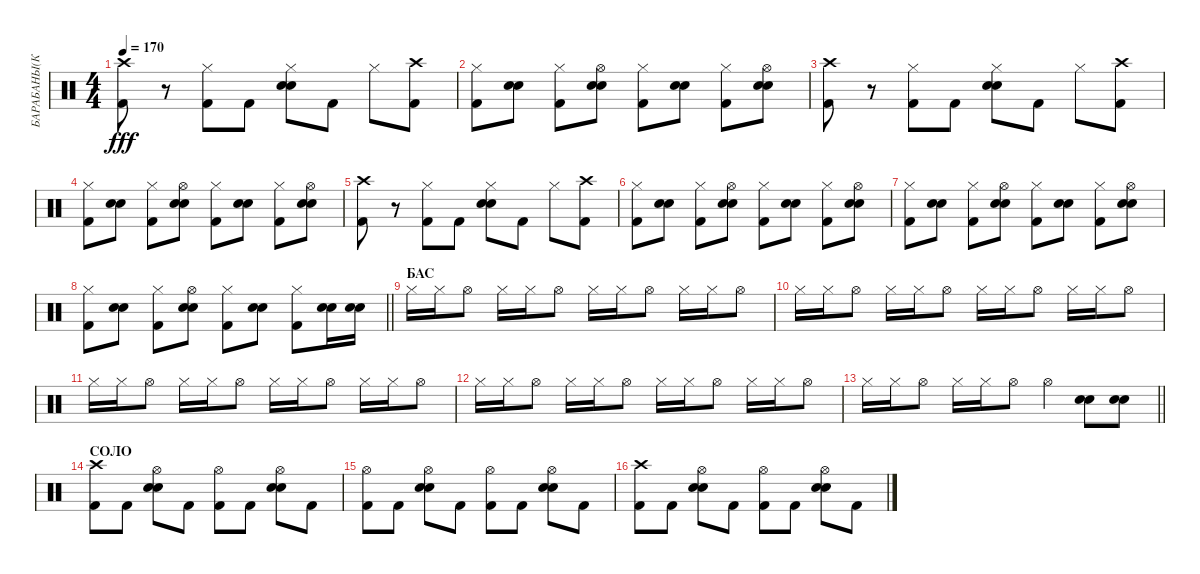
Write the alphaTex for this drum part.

\track ("БАРАБАНЫ(КАРДАН)" "БАРАБАНЫ(К") {instrument percussion}
\staff {score}
\articulation defaults
\ts (4 4)
\tempo 170
\clef neutral
\ks c
("Kick (hit) 2" "Crash high (hit)").8{dy fff} r.8 ("Kick (hit) 2" "Hi-Hat (closed)").8 "Kick (hit) 2".8 ("Snare (hit) 2" "Electric Snare (hit)" "Hi-Hat (closed)").8 "Kick (hit) 2".8 "Hi-Hat (closed)".8 ("Kick (hit) 2" "Crash high (hit)").8 |
("Kick (hit) 2" "Hi-Hat (closed)").8 ("Snare (hit) 2" "Electric Snare (hit)").8 ("Kick (hit) 2" "Hi-Hat (closed)").8 ("Electric Snare (hit)" "Snare (hit) 2" "Hi-Hat (open)").8 ("Kick (hit) 2" "Hi-Hat (closed)").8 ("Snare (hit) 2" "Electric Snare (hit)").8 ("Kick (hit) 2" "Hi-Hat (closed)").8 ("Electric Snare (hit)" "Snare (hit) 2" "Hi-Hat (open)").8 |
("Kick (hit) 2" "Crash high (hit)").8 r.8 ("Kick (hit) 2" "Hi-Hat (closed)").8 "Kick (hit) 2".8 ("Snare (hit) 2" "Electric Snare (hit)" "Hi-Hat (closed)").8 "Kick (hit) 2".8 "Hi-Hat (closed)".8 ("Kick (hit) 2" "Crash high (hit)").8 |
("Kick (hit) 2" "Hi-Hat (closed)").8 ("Snare (hit) 2" "Electric Snare (hit)").8 ("Kick (hit) 2" "Hi-Hat (closed)").8 ("Electric Snare (hit)" "Snare (hit) 2" "Hi-Hat (open)").8 ("Kick (hit) 2" "Hi-Hat (closed)").8 ("Snare (hit) 2" "Electric Snare (hit)").8 ("Kick (hit) 2" "Hi-Hat (closed)").8 ("Electric Snare (hit)" "Snare (hit) 2" "Hi-Hat (open)").8 |
("Kick (hit) 2" "Crash high (hit)").8 r.8 ("Kick (hit) 2" "Hi-Hat (closed)").8 "Kick (hit) 2".8 ("Snare (hit) 2" "Electric Snare (hit)" "Hi-Hat (closed)").8 "Kick (hit) 2".8 "Hi-Hat (closed)".8 ("Kick (hit) 2" "Crash high (hit)").8 |
("Kick (hit) 2" "Hi-Hat (closed)").8 ("Snare (hit) 2" "Electric Snare (hit)").8 ("Kick (hit) 2" "Hi-Hat (closed)").8 ("Electric Snare (hit)" "Snare (hit) 2" "Hi-Hat (open)").8 ("Kick (hit) 2" "Hi-Hat (closed)").8 ("Snare (hit) 2" "Electric Snare (hit)").8 ("Kick (hit) 2" "Hi-Hat (closed)").8 ("Electric Snare (hit)" "Snare (hit) 2" "Hi-Hat (open)").8 |
("Kick (hit) 2" "Hi-Hat (closed)").8 ("Snare (hit) 2" "Electric Snare (hit)").8 ("Kick (hit) 2" "Hi-Hat (closed)").8 ("Electric Snare (hit)" "Snare (hit) 2" "Hi-Hat (open)").8 ("Kick (hit) 2" "Hi-Hat (closed)").8 ("Snare (hit) 2" "Electric Snare (hit)").8 ("Kick (hit) 2" "Hi-Hat (closed)").8 ("Electric Snare (hit)" "Snare (hit) 2" "Hi-Hat (open)").8 |
\barLineRight lightlight
("Kick (hit) 2" "Hi-Hat (closed)").8 ("Snare (hit) 2" "Electric Snare (hit)").8 ("Kick (hit) 2" "Hi-Hat (closed)").8 ("Electric Snare (hit)" "Snare (hit) 2" "Hi-Hat (open)").8 ("Kick (hit) 2" "Hi-Hat (closed)").8 ("Snare (hit) 2" "Electric Snare (hit)").8 ("Kick (hit) 2" "Hi-Hat (closed)").8 ("Electric Snare (hit)" "Snare (hit) 2").16 ("Electric Snare (hit)" "Snare (hit) 2").16 |
\section ("" "БАС")
"Hi-Hat (closed)".16 "Hi-Hat (closed)".16 "Hi-Hat (open)".8 "Hi-Hat (closed)".16 "Hi-Hat (closed)".16 "Hi-Hat (open)".8 "Hi-Hat (closed)".16 "Hi-Hat (closed)".16 "Hi-Hat (open)".8 "Hi-Hat (closed)".16 "Hi-Hat (closed)".16 "Hi-Hat (open)".8 |
"Hi-Hat (closed)".16 "Hi-Hat (closed)".16 "Hi-Hat (open)".8 "Hi-Hat (closed)".16 "Hi-Hat (closed)".16 "Hi-Hat (open)".8 "Hi-Hat (closed)".16 "Hi-Hat (closed)".16 "Hi-Hat (open)".8 "Hi-Hat (closed)".16 "Hi-Hat (closed)".16 "Hi-Hat (open)".8 |
"Hi-Hat (closed)".16 "Hi-Hat (closed)".16 "Hi-Hat (open)".8 "Hi-Hat (closed)".16 "Hi-Hat (closed)".16 "Hi-Hat (open)".8 "Hi-Hat (closed)".16 "Hi-Hat (closed)".16 "Hi-Hat (open)".8 "Hi-Hat (closed)".16 "Hi-Hat (closed)".16 "Hi-Hat (open)".8 |
"Hi-Hat (closed)".16 "Hi-Hat (closed)".16 "Hi-Hat (open)".8 "Hi-Hat (closed)".16 "Hi-Hat (closed)".16 "Hi-Hat (open)".8 "Hi-Hat (closed)".16 "Hi-Hat (closed)".16 "Hi-Hat (open)".8 "Hi-Hat (closed)".16 "Hi-Hat (closed)".16 "Hi-Hat (open)".8 |
\barLineRight lightlight "Hi-Hat (closed)".16 "Hi-Hat (closed)".16 "Hi-Hat (open)".8 "Hi-Hat (closed)".16 "Hi-Hat (closed)".16 "Hi-Hat (open)".8 "Hi-Hat (open)".4
("Electric Snare (hit)" "Snare (hit) 2").8 ("Electric Snare (hit)" "Snare (hit) 2").8 |
\section ("" "СОЛО")
("Kick (hit) 2" "Crash high (hit)").8 "Kick (hit) 2".8 ("Snare (hit) 2" "Electric Snare (hit)" "Hi-Hat (open)").8 "Kick (hit) 2".8 ("Kick (hit) 2" "Hi-Hat (open)").8 "Kick (hit) 2".8 ("Snare (hit) 2" "Electric Snare (hit)" "Hi-Hat (open)").8 "Kick (hit) 2".8 |
("Kick (hit) 2" "Hi-Hat (open)").8 "Kick (hit) 2".8 ("Snare (hit) 2" "Electric Snare (hit)" "Hi-Hat (open)").8 "Kick (hit) 2".8 ("Kick (hit) 2" "Hi-Hat (open)").8 "Kick (hit) 2".8 ("Snare (hit) 2" "Electric Snare (hit)" "Hi-Hat (open)").8 "Kick (hit) 2".8 |
("Kick (hit) 2" "Crash high (hit)").8 "Kick (hit) 2".8 ("Snare (hit) 2" "Electric Snare (hit)" "Hi-Hat (open)").8 "Kick (hit) 2".8 ("Kick (hit) 2" "Hi-Hat (open)").8 "Kick (hit) 2".8 ("Snare (hit) 2" "Electric Snare (hit)" "Hi-Hat (open)").8 "Kick (hit) 2".8
